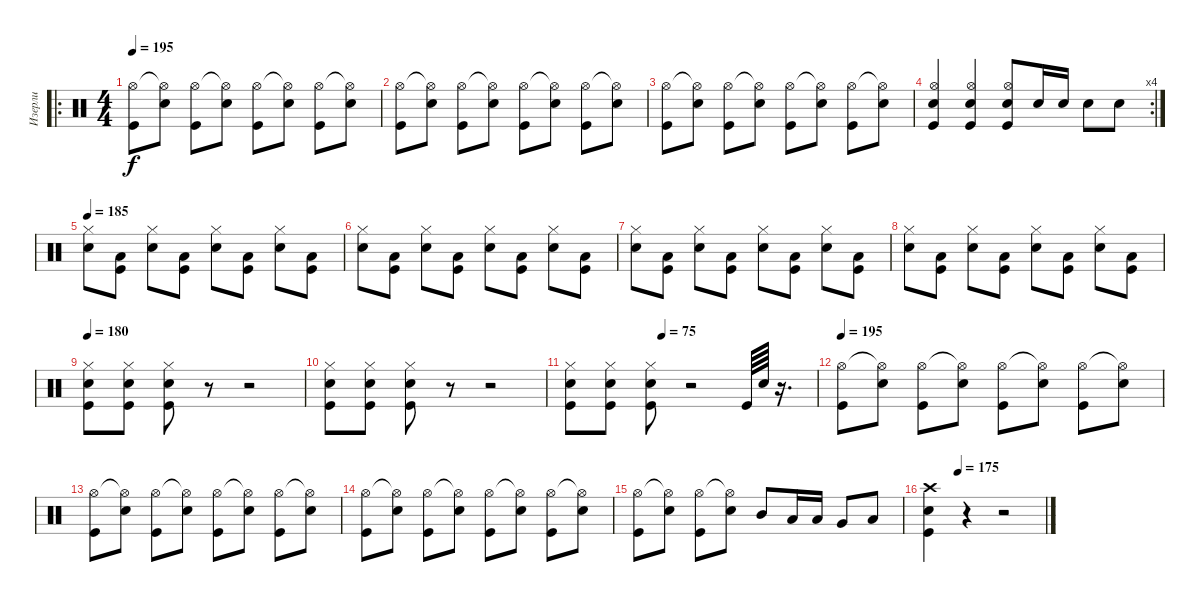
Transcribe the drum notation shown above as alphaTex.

\track ("Изерли" "Изерли") {instrument percussion}
\staff {score}
\articulation defaults
\ro
\ts (4 4)
\tempo 195
\clef neutral
\ks c
("Kick (hit)" "Hi-Hat (open)").8{dy f} ("Snare (hit) 2" "Hi-Hat (open)"{t}).8 ("Kick (hit)" "Hi-Hat (open)").8 ("Snare (hit) 2" "Hi-Hat (open)"{t}).8 ("Kick (hit)" "Hi-Hat (open)").8 ("Snare (hit) 2" "Hi-Hat (open)"{t}).8 ("Kick (hit)" "Hi-Hat (open)").8 ("Snare (hit) 2" "Hi-Hat (open)"{t}).8 |
("Kick (hit)" "Hi-Hat (open)").8 ("Snare (hit) 2" "Hi-Hat (open)"{t}).8 ("Kick (hit)" "Hi-Hat (open)").8 ("Snare (hit) 2" "Hi-Hat (open)"{t}).8 ("Kick (hit)" "Hi-Hat (open)").8 ("Snare (hit) 2" "Hi-Hat (open)"{t}).8 ("Kick (hit)" "Hi-Hat (open)").8 ("Snare (hit) 2" "Hi-Hat (open)"{t}).8 |
("Kick (hit)" "Hi-Hat (open)").8 ("Snare (hit) 2" "Hi-Hat (open)"{t}).8 ("Kick (hit)" "Hi-Hat (open)").8 ("Snare (hit) 2" "Hi-Hat (open)"{t}).8 ("Kick (hit)" "Hi-Hat (open)").8 ("Snare (hit) 2" "Hi-Hat (open)"{t}).8 ("Kick (hit)" "Hi-Hat (open)").8 ("Snare (hit) 2" "Hi-Hat (open)"{t}).8 |
\rc 4
("Snare (hit) 2" "Kick (hit)" "Hi-Hat (open)").4 ("Snare (hit) 2" "Hi-Hat (open)" "Kick (hit)").4 ("Snare (hit) 2" "Hi-Hat (open)" "Kick (hit)").8 "Snare (hit) 2".16 "Snare (hit) 2".16 "Snare (hit) 2".8 "Snare (hit) 2".8 |
\tempo 185
("Snare (hit) 2" "Hi-Hat (closed)").8 ("Kick (hit)" "Low Floor Tom (hit)").8 ("Snare (hit) 2" "Hi-Hat (closed)").8 ("Kick (hit)" "Low Floor Tom (hit)").8 ("Snare (hit) 2" "Hi-Hat (closed)").8 ("Kick (hit)" "Low Floor Tom (hit)").8 ("Snare (hit) 2" "Hi-Hat (closed)").8 ("Kick (hit)" "Low Floor Tom (hit)").8 |
("Snare (hit) 2" "Hi-Hat (closed)").8 ("Kick (hit)" "Low Floor Tom (hit)").8 ("Snare (hit) 2" "Hi-Hat (closed)").8 ("Kick (hit)" "Low Floor Tom (hit)").8 ("Snare (hit) 2" "Hi-Hat (closed)").8 ("Kick (hit)" "Low Floor Tom (hit)").8 ("Snare (hit) 2" "Hi-Hat (closed)").8 ("Kick (hit)" "Low Floor Tom (hit)").8 |
("Snare (hit) 2" "Hi-Hat (closed)").8 ("Kick (hit)" "Low Floor Tom (hit)").8 ("Snare (hit) 2" "Hi-Hat (closed)").8 ("Kick (hit)" "Low Floor Tom (hit)").8 ("Snare (hit) 2" "Hi-Hat (closed)").8 ("Kick (hit)" "Low Floor Tom (hit)").8 ("Snare (hit) 2" "Hi-Hat (closed)").8 ("Kick (hit)" "Low Floor Tom (hit)").8 |
("Snare (hit) 2" "Hi-Hat (closed)").8 ("Kick (hit)" "Low Floor Tom (hit)").8 ("Snare (hit) 2" "Hi-Hat (closed)").8 ("Kick (hit)" "Low Floor Tom (hit)").8 ("Snare (hit) 2" "Hi-Hat (closed)").8 ("Kick (hit)" "Low Floor Tom (hit)").8 ("Snare (hit) 2" "Hi-Hat (closed)").8 ("Kick (hit)" "Low Floor Tom (hit)").8 |
\tempo 180
("Snare (hit) 2" "Hi-Hat (closed)" "Kick (hit)").8 ("Snare (hit) 2" "Hi-Hat (closed)" "Kick (hit)").8 ("Snare (hit) 2" "Hi-Hat (closed)" "Kick (hit)").8 r.8 r.2 |
("Snare (hit) 2" "Hi-Hat (closed)" "Kick (hit)").8 ("Snare (hit) 2" "Hi-Hat (closed)" "Kick (hit)").8 ("Snare (hit) 2" "Hi-Hat (closed)" "Kick (hit)").8 r.8 r.2 |
\tempo (75 0.375)
("Snare (hit) 2" "Hi-Hat (closed)" "Kick (hit)").8 ("Snare (hit) 2" "Hi-Hat (closed)" "Kick (hit)").8 ("Snare (hit) 2" "Hi-Hat (closed)" "Kick (hit)").8 r.2 "Kick (hit)".64 "Snare (hit) 2".64 r.16{d} |
\tempo 195
("Kick (hit)" "Hi-Hat (open)").8 ("Snare (hit) 2" "Hi-Hat (open)"{t}).8 ("Kick (hit)" "Hi-Hat (open)").8 ("Snare (hit) 2" "Hi-Hat (open)"{t}).8 ("Kick (hit)" "Hi-Hat (open)").8 ("Snare (hit) 2" "Hi-Hat (open)"{t}).8 ("Kick (hit)" "Hi-Hat (open)").8 ("Snare (hit) 2" "Hi-Hat (open)"{t}).8 |
("Kick (hit)" "Hi-Hat (open)").8 ("Snare (hit) 2" "Hi-Hat (open)"{t}).8 ("Kick (hit)" "Hi-Hat (open)").8 ("Snare (hit) 2" "Hi-Hat (open)"{t}).8 ("Kick (hit)" "Hi-Hat (open)").8 ("Snare (hit) 2" "Hi-Hat (open)"{t}).8 ("Kick (hit)" "Hi-Hat (open)").8 ("Snare (hit) 2" "Hi-Hat (open)"{t}).8 |
("Kick (hit)" "Hi-Hat (open)").8 ("Snare (hit) 2" "Hi-Hat (open)"{t}).8 ("Kick (hit)" "Hi-Hat (open)").8 ("Snare (hit) 2" "Hi-Hat (open)"{t}).8 ("Kick (hit)" "Hi-Hat (open)").8 ("Snare (hit) 2" "Hi-Hat (open)"{t}).8 ("Kick (hit)" "Hi-Hat (open)").8 ("Snare (hit) 2" "Hi-Hat (open)"{t}).8 |
("Kick (hit)" "Hi-Hat (open)").8 ("Snare (hit) 2" "Hi-Hat (open)"{t}).8 ("Kick (hit)" "Hi-Hat (open)").8 ("Snare (hit) 2" "Hi-Hat (open)"{t}).8 "Mid Tom (hit)".8{balance 6} "Low Tom (hit)".16{balance 7} "Low Tom (hit)".16{balance 8} "Very Low Tom (hit)".8{balance 9} "Low Floor Tom (hit)".8{balance 10} |
\tempo (175 0.25)
("Kick (hit)" "Snare (hit) 2" "Crash high (hit)").4{balance 8} r.4 r.2
